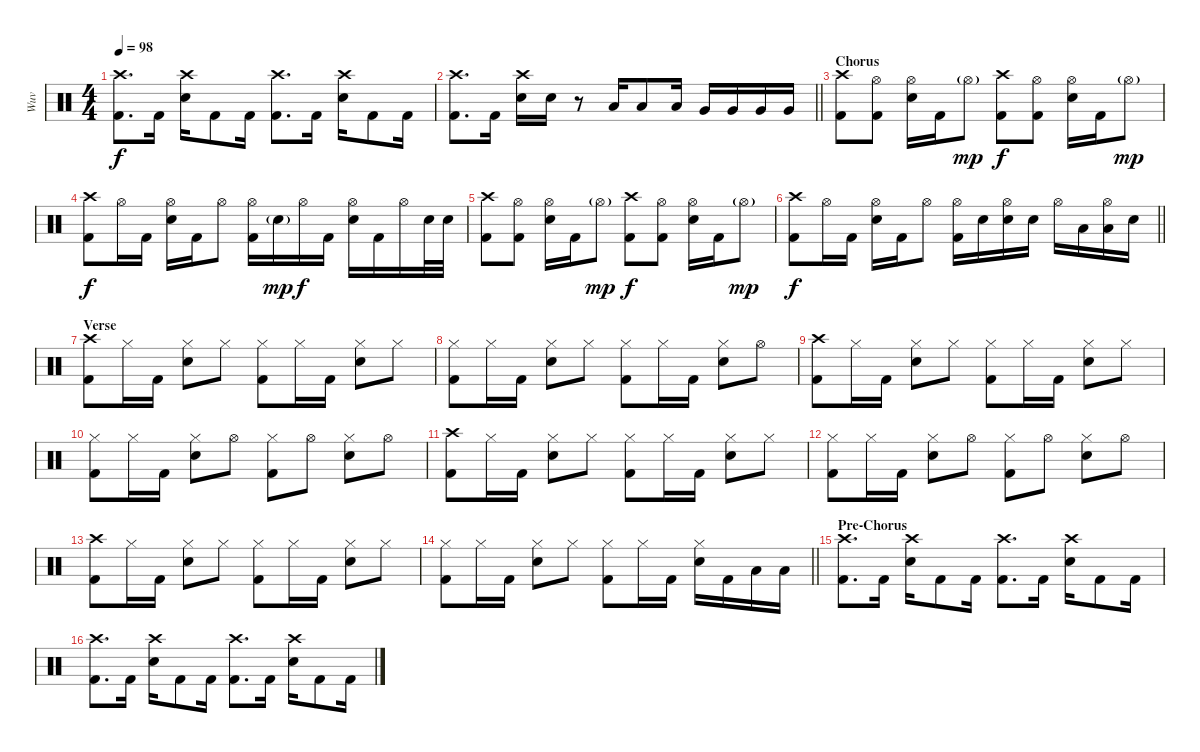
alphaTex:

\track ("Wuv" "Wuv") {instrument percussion}
\staff {score}
\articulation defaults
\ts (4 4)
\tempo 98
\clef neutral
\ks c
("Crash high (hit)" "Kick (hit) 2").8{d dy f} "Kick (hit) 2".16 ("Crash high (hit)" "Electric Snare (hit)").16 "Kick (hit) 2".8 "Kick (hit) 2".16 ("Crash high (hit)" "Kick (hit) 2").8{d} "Kick (hit) 2".16 ("Crash high (hit)" "Electric Snare (hit)").16 "Kick (hit) 2".8 "Kick (hit) 2".16 |
\barLineRight lightlight
("Crash high (hit)" "Kick (hit) 2").8{d} "Kick (hit) 2".16 ("Crash high (hit)" "Electric Snare (hit)").16 "Electric Snare (hit)".16 r.8 "Low Tom (hit)".16 "Low Tom (hit)".8 "Low Tom (hit)".16 "Very Low Tom (hit)".16 "Very Low Tom (hit)".16 "Very Low Tom (hit)".16 "Very Low Tom (hit)".16 |
\section ("" "Chorus")
("Crash high (hit)" "Kick (hit) 2").8 ("Hi-Hat (open)" "Kick (hit) 2").8 ("Hi-Hat (open)" "Electric Snare (hit)").16 "Kick (hit) 2".16 "Hi-Hat (open)"{g}.8{dy mp} ("Crash high (hit)" "Kick (hit) 2").8{dy f} ("Hi-Hat (open)" "Kick (hit) 2").8 ("Hi-Hat (open)" "Electric Snare (hit)").16 "Kick (hit) 2".16 "Hi-Hat (open)"{g}.8{dy mp} |
("Crash high (hit)" "Kick (hit) 2").8{dy f} "Hi-Hat (open)".16 "Kick (hit) 2".16 ("Hi-Hat (open)" "Electric Snare (hit)").16 "Kick (hit) 2".16 "Hi-Hat (open)".8 ("Hi-Hat (open)" "Kick (hit) 2").16 "Electric Snare (hit)"{g}.16{dy mp} "Hi-Hat (open)".16{dy f} "Kick (hit) 2".16 ("Hi-Hat (open)" "Electric Snare (hit)").16 "Kick (hit) 2".16 "Hi-Hat (open)".16 "Electric Snare (hit)".32 "Electric Snare (hit)".32 |
("Crash high (hit)" "Kick (hit) 2").8 ("Hi-Hat (open)" "Kick (hit) 2").8 ("Hi-Hat (open)" "Electric Snare (hit)").16 "Kick (hit) 2".16 "Hi-Hat (open)"{g}.8{dy mp} ("Crash high (hit)" "Kick (hit) 2").8{dy f} ("Hi-Hat (open)" "Kick (hit) 2").8 ("Hi-Hat (open)" "Electric Snare (hit)").16 "Kick (hit) 2".16 "Hi-Hat (open)"{g}.8{dy mp} |
\barLineRight lightlight
("Crash high (hit)" "Kick (hit) 2").8{dy f} "Hi-Hat (open)".16 "Kick (hit) 2".16 ("Hi-Hat (open)" "Electric Snare (hit)").16 "Kick (hit) 2".16 "Hi-Hat (open)".8 ("Hi-Hat (open)" "Kick (hit) 2").16 "Electric Snare (hit)".16 ("Hi-Hat (open)" "Electric Snare (hit)").16 "Electric Snare (hit)".16 "Hi-Hat (open)".16 "Low Floor Tom (hit)".16 ("Hi-Hat (open)" "Low Floor Tom (hit)").16 "Electric Snare (hit)".16 |
\section ("" "Verse")
("Crash high (hit)" "Kick (hit) 2").8 "Hi-Hat (closed)".16 "Kick (hit) 2".16 ("Hi-Hat (closed)" "Electric Snare (hit)").8 "Hi-Hat (closed)".8 ("Hi-Hat (closed)" "Kick (hit) 2").8 "Hi-Hat (closed)".16 "Kick (hit) 2".16 ("Hi-Hat (closed)" "Electric Snare (hit)").8 "Hi-Hat (closed)".8 |
("Hi-Hat (closed)" "Kick (hit) 2").8 "Hi-Hat (closed)".16 "Kick (hit) 2".16 ("Hi-Hat (closed)" "Electric Snare (hit)").8 "Hi-Hat (closed)".8 ("Hi-Hat (closed)" "Kick (hit) 2").8 "Hi-Hat (closed)".16 "Kick (hit) 2".16 ("Hi-Hat (closed)" "Electric Snare (hit)").8 "Hi-Hat (open)".8 |
("Crash high (hit)" "Kick (hit) 2").8 "Hi-Hat (closed)".16 "Kick (hit) 2".16 ("Hi-Hat (closed)" "Electric Snare (hit)").8 "Hi-Hat (closed)".8 ("Hi-Hat (closed)" "Kick (hit) 2").8 "Hi-Hat (closed)".16 "Kick (hit) 2".16 ("Hi-Hat (closed)" "Electric Snare (hit)").8 "Hi-Hat (closed)".8 |
("Hi-Hat (closed)" "Kick (hit) 2").8 "Hi-Hat (closed)".16 "Kick (hit) 2".16 ("Hi-Hat (closed)" "Electric Snare (hit)").8 "Hi-Hat (open)".8 ("Hi-Hat (closed)" "Kick (hit) 2").8 "Hi-Hat (open)".8 ("Hi-Hat (closed)" "Electric Snare (hit)").8 "Hi-Hat (open)".8 |
("Crash high (hit)" "Kick (hit) 2").8 "Hi-Hat (closed)".16 "Kick (hit) 2".16 ("Hi-Hat (closed)" "Electric Snare (hit)").8 "Hi-Hat (closed)".8 ("Hi-Hat (closed)" "Kick (hit) 2").8 "Hi-Hat (closed)".16 "Kick (hit) 2".16 ("Hi-Hat (closed)" "Electric Snare (hit)").8 "Hi-Hat (closed)".8 |
("Hi-Hat (closed)" "Kick (hit) 2").8 "Hi-Hat (closed)".16 "Kick (hit) 2".16 ("Hi-Hat (closed)" "Electric Snare (hit)").8 "Hi-Hat (open)".8 ("Hi-Hat (closed)" "Kick (hit) 2").8 "Hi-Hat (open)".8 ("Hi-Hat (closed)" "Electric Snare (hit)").8 "Hi-Hat (open)".8 |
("Crash high (hit)" "Kick (hit) 2").8 "Hi-Hat (closed)".16 "Kick (hit) 2".16 ("Hi-Hat (closed)" "Electric Snare (hit)").8 "Hi-Hat (closed)".8 ("Hi-Hat (closed)" "Kick (hit) 2").8 "Hi-Hat (closed)".16 "Kick (hit) 2".16 ("Hi-Hat (closed)" "Electric Snare (hit)").8 "Hi-Hat (closed)".8 |
\barLineRight lightlight
("Hi-Hat (closed)" "Kick (hit) 2").8 "Hi-Hat (closed)".16 "Kick (hit) 2".16 ("Hi-Hat (closed)" "Electric Snare (hit)").8 "Hi-Hat (closed)".8 ("Hi-Hat (closed)" "Kick (hit) 2").8 "Hi-Hat (closed)".16 "Kick (hit) 2".16 ("Hi-Hat (closed)" "Electric Snare (hit)").16 "Kick (hit) 2".16 "Low Floor Tom (hit)".16 "Low Floor Tom (hit)".16 |
\section ("" "Pre-Chorus")
("Crash high (hit)" "Kick (hit) 2").8{d} "Kick (hit) 2".16 ("Crash high (hit)" "Electric Snare (hit)").16 "Kick (hit) 2".8 "Kick (hit) 2".16 ("Crash high (hit)" "Kick (hit) 2").8{d} "Kick (hit) 2".16 ("Crash high (hit)" "Electric Snare (hit)").16 "Kick (hit) 2".8 "Kick (hit) 2".16 |
("Crash high (hit)" "Kick (hit) 2").8{d} "Kick (hit) 2".16 ("Crash high (hit)" "Electric Snare (hit)").16 "Kick (hit) 2".8 "Kick (hit) 2".16 ("Crash high (hit)" "Kick (hit) 2").8{d} "Kick (hit) 2".16 ("Crash high (hit)" "Electric Snare (hit)").16 "Kick (hit) 2".8 "Kick (hit) 2".16
